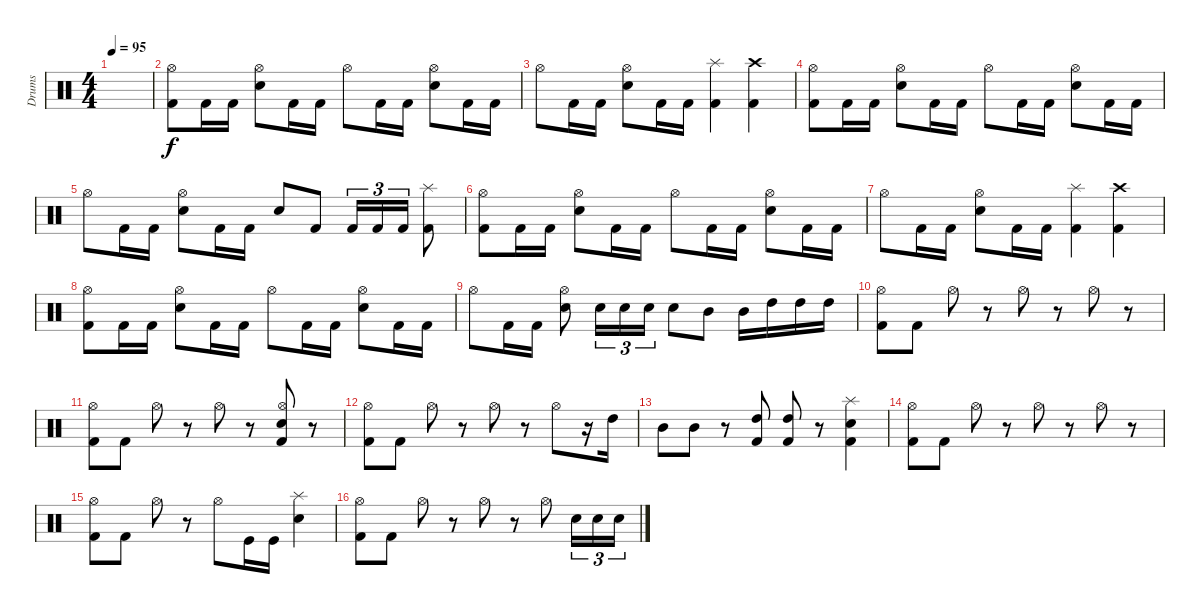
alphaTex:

\track ("Drums" "Drums") {instrument percussion}
\staff {score}
\articulation defaults
\ts (4 4)
\tempo 95
\clef neutral
\ks c
|
("Kick (hit) 2" "Hi-Hat (open)").8 "Kick (hit) 2".16 "Kick (hit) 2".16 ("Snare (hit) 2" "Hi-Hat (open)").8 "Kick (hit) 2".16 "Kick (hit) 2".16 "Hi-Hat (open)".8 "Kick (hit) 2".16 "Kick (hit) 2".16 ("Snare (hit) 2" "Hi-Hat (open)").8 "Kick (hit) 2".16 "Kick (hit) 2".16 |
"Hi-Hat (open)".8 "Kick (hit) 2".16 "Kick (hit) 2".16 ("Snare (hit) 2" "Hi-Hat (open)").8 "Kick (hit) 2".16 "Kick (hit) 2".16 ("Kick (hit) 2" "Splash (hit)").4 ("Kick (hit) 2" "Crash high (hit)").4 |
("Kick (hit) 2" "Hi-Hat (open)").8 "Kick (hit) 2".16 "Kick (hit) 2".16 ("Snare (hit) 2" "Hi-Hat (open)").8 "Kick (hit) 2".16 "Kick (hit) 2".16 "Hi-Hat (open)".8 "Kick (hit) 2".16 "Kick (hit) 2".16 ("Snare (hit) 2" "Hi-Hat (open)").8 "Kick (hit) 2".16 "Kick (hit) 2".16 |
"Hi-Hat (open)".8 "Kick (hit) 2".16 "Kick (hit) 2".16 ("Snare (hit) 2" "Hi-Hat (open)").8 "Kick (hit) 2".16 "Kick (hit) 2".16 "Snare (hit) 2".8 "Kick (hit) 2".8 "Kick (hit) 2".16{tu (3 2)} "Kick (hit) 2".16{tu (3 2)} "Kick (hit) 2".16{tu (3 2)} ("Kick (hit) 2" "Splash (hit)").8 |
("Kick (hit) 2" "Hi-Hat (open)").8 "Kick (hit) 2".16 "Kick (hit) 2".16 ("Snare (hit) 2" "Hi-Hat (open)").8 "Kick (hit) 2".16 "Kick (hit) 2".16 "Hi-Hat (open)".8 "Kick (hit) 2".16 "Kick (hit) 2".16 ("Snare (hit) 2" "Hi-Hat (open)").8 "Kick (hit) 2".16 "Kick (hit) 2".16 |
"Hi-Hat (open)".8 "Kick (hit) 2".16 "Kick (hit) 2".16 ("Snare (hit) 2" "Hi-Hat (open)").8 "Kick (hit) 2".16 "Kick (hit) 2".16 ("Kick (hit) 2" "Splash (hit)").4 ("Kick (hit) 2" "Crash high (hit)").4 |
("Kick (hit) 2" "Hi-Hat (open)").8 "Kick (hit) 2".16 "Kick (hit) 2".16 ("Snare (hit) 2" "Hi-Hat (open)").8 "Kick (hit) 2".16 "Kick (hit) 2".16 "Hi-Hat (open)".8 "Kick (hit) 2".16 "Kick (hit) 2".16 ("Snare (hit) 2" "Hi-Hat (open)").8 "Kick (hit) 2".16 "Kick (hit) 2".16 |
"Hi-Hat (open)".8 "Kick (hit) 2".16 "Kick (hit) 2".16 ("Snare (hit) 2" "Hi-Hat (open)").8 "Snare (hit) 2".16{tu (3 2)} "Snare (hit) 2".16{tu (3 2)} "Snare (hit) 2".16{tu (3 2)} "Snare (hit) 2".8 "Mid Tom (hit)".8 "Mid Tom (hit)".16 "High Tom (hit)".16 "High Tom (hit)".16 "High Tom (hit)".16 |
("Kick (hit) 2" "Hi-Hat (open)").8 "Kick (hit) 2".8 "Hi-Hat (open)".8 r.8 "Hi-Hat (open)".8 r.8 "Hi-Hat (open)".8 r.8 |
("Kick (hit) 2" "Hi-Hat (open)").8 "Kick (hit) 2".8 "Hi-Hat (open)".8 r.8 "Hi-Hat (open)".8 r.8 ("Kick (hit) 2" "Hi-Hat (open)" "Snare (hit) 2").8 r.8 |
("Kick (hit) 2" "Hi-Hat (open)").8 "Kick (hit) 2".8 "Hi-Hat (open)".8 r.8 "Hi-Hat (open)".8 r.8 "Hi-Hat (open)".8 r.16 "High Tom (hit)".16 |
"Mid Tom (hit)".8 "Mid Tom (hit)".8 r.8 ("High Tom (hit)" "Kick (hit) 2").8 ("High Tom (hit)" "Kick (hit) 2").8 r.8 ("Snare (hit) 2" "Splash (hit)" "Kick (hit) 2").4 |
("Kick (hit) 2" "Hi-Hat (open)").8 "Kick (hit) 2".8 "Hi-Hat (open)".8 r.8 "Hi-Hat (open)".8 r.8 "Hi-Hat (open)".8 r.8 |
("Kick (hit) 2" "Hi-Hat (open)").8 "Kick (hit) 2".8 "Hi-Hat (open)".8 r.8 "Hi-Hat (open)".8 "Kick (hit)".16 "Kick (hit)".16 ("Snare (hit) 2" "Splash (hit)").4 |
("Kick (hit) 2" "Hi-Hat (open)").8 "Kick (hit) 2".8 "Hi-Hat (open)".8 r.8 "Hi-Hat (open)".8 r.8 "Hi-Hat (open)".8 "Snare (hit) 2".16{tu (3 2)} "Snare (hit) 2".16{tu (3 2)} "Snare (hit) 2".16{tu (3 2)}
